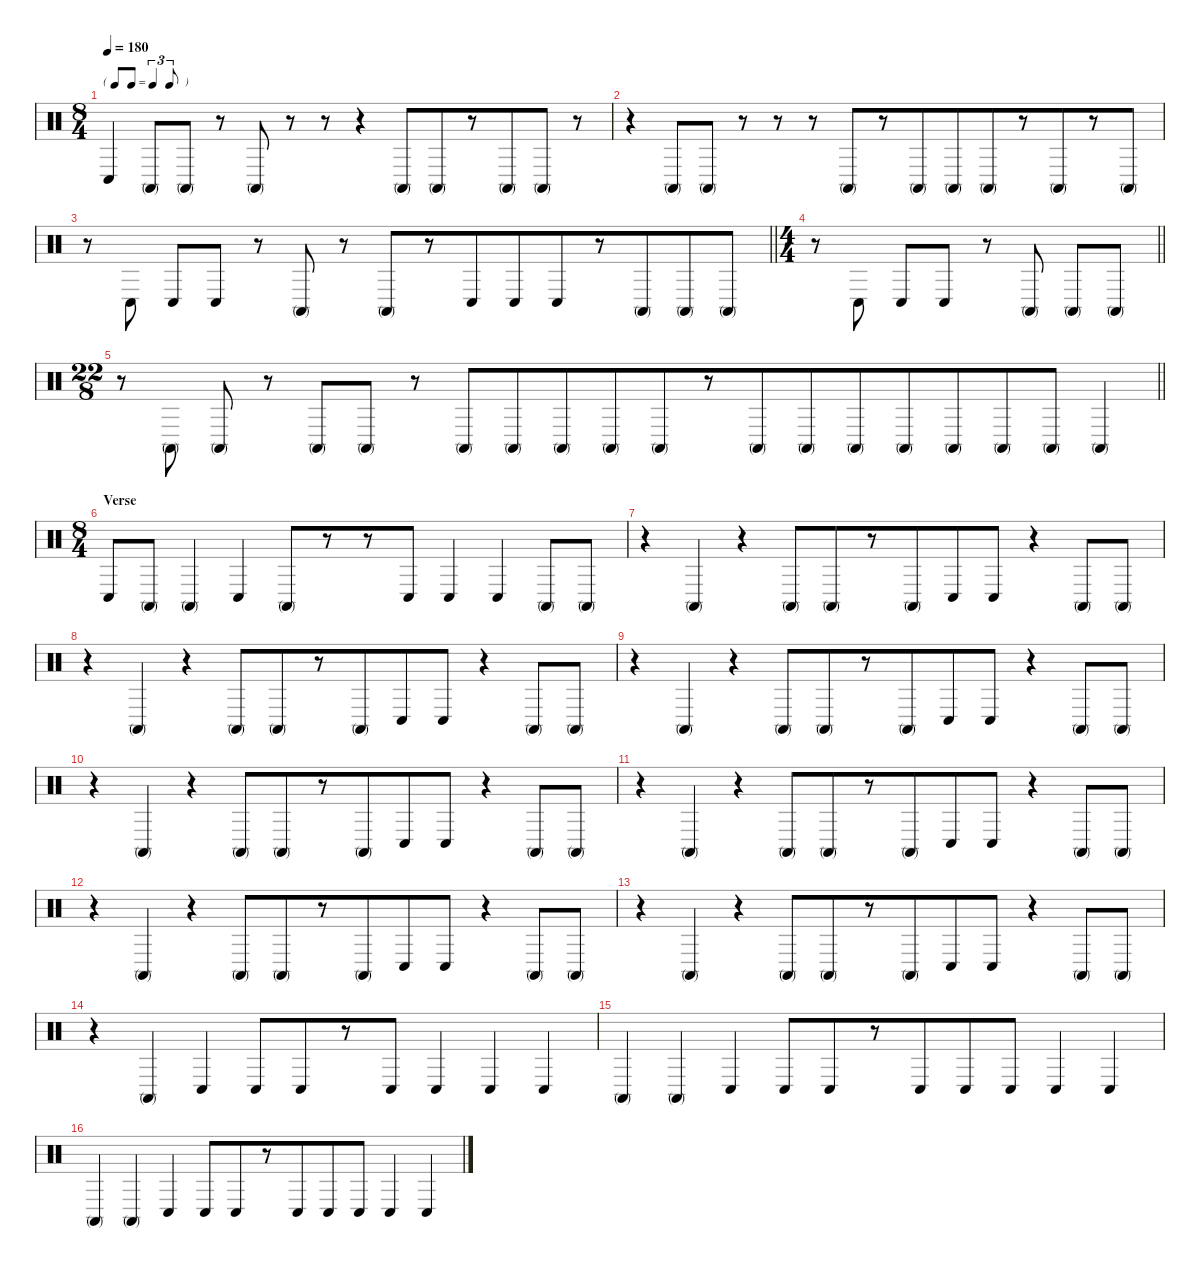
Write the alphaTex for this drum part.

\defaultSystemsLayout 4
\hideDynamics
\bracketExtendMode nobrackets
\singleTrackTrackNamePolicy hidden
\multiTrackTrackNamePolicy hidden
\firstSystemTrackNameMode fullname
\firstSystemTrackNameOrientation horizontal
\otherSystemsTrackNameOrientation horizontal
\track ("Congas" "drm.") {instrument percussion}
\staff {score}
\articulation defaults
\ts (8 4)
\beaming (8 2 2 2 10)
\tf triplet8th
\tempo 180
\clef neutral
\ks c "Conga low (hit)".4{dy f beam Up} "Conga high (mute)".8{beam Up} "Conga high (mute)".8{beam Up}
r.8{beam Up} "Conga high (mute)".8{beam Up} r.8{beam Up} r.8{beam Up} r.4{beam Up} "Conga high (mute)".8{beam Up} "Conga high (mute)".8{beam Up} r.8{beam Up} "Conga high (mute)".8{beam Up} "Conga high (mute)".8{beam Up} r.8{beam Up} |
r.4{beam Down} "Conga high (mute)".8{beam Up} "Conga high (mute)".8{beam Up} r.8{beam Up} r.8{beam Up} r.8{beam Up} "Conga high (mute)".8{beam Up} r.8{beam Up} "Conga high (mute)".8{beam Up} "Conga high (mute)".8{beam Up} "Conga high (mute)".8{beam Up} r.8{beam Up} "Conga high (mute)".8{beam Up} r.8{beam Up} "Conga high (mute)".8{beam Up} |
\barLineRight lightlight
r.8{beam Down} "Conga low (hit)".8{beam Up} "Conga low (hit)".8{beam Up} "Conga low (hit)".8{beam Up} r.8{beam Up} "Conga high (mute)".8{beam Up} r.8{beam Up} "Conga high (mute)".8{beam Up} r.8{beam Up} "Conga low (hit)".8{beam Up} "Conga low (hit)".8{beam Up} "Conga low (hit)".8{beam Up} r.8{beam Up} "Conga high (mute)".8{beam Up} "Conga high (mute)".8{beam Up} "Conga high (mute)".8{beam Up} |
\ts (4 4)
\beaming (8 2 2 2 2)
\barLineRight lightlight
r.8{beam Down} "Conga low (hit)".8{beam Up} "Conga low (hit)".8{beam Up} "Conga low (hit)".8{beam Up} r.8{beam Up} "Conga high (mute)".8{beam Up} "Conga high (mute)".8{beam Up} "Conga high (mute)".8{beam Up} |
\ts (22 8)
\beaming (8 2 2 2 16)
\barLineRight lightlight
r.8{beam Down} "Conga high (mute)".8{beam Up} "Conga high (mute)".8{beam Up} r.8{beam Up} "Conga high (mute)".8{beam Up} "Conga high (mute)".8{beam Up} r.8{beam Up} "Conga high (mute)".8{beam Up} "Conga high (mute)".8{beam Up} "Conga high (mute)".8{beam Up} "Conga high (mute)".8{beam Up} "Conga high (mute)".8{beam Up} r.8{beam Up} "Conga high (mute)".8{beam Up} "Conga high (mute)".8{beam Up} "Conga high (mute)".8{beam Up} "Conga high (mute)".8{beam Up} "Conga high (mute)".8{beam Up} "Conga high (mute)".8{beam Up} "Conga high (mute)".8{beam Up} "Conga high (mute)".4{beam Up} |
\ts (8 4)
\beaming (8 2 2 2 10)
\section ("" "Verse")
"Conga low (hit)".8{beam Up} "Conga high (mute)".8{beam Up} "Conga high (mute)".4{beam Up} "Conga low (hit)".4{beam Up} "Conga high (mute)".8{beam Up} r.8{beam Up} r.8{beam Up} "Conga low (hit)".8{beam Up} "Conga low (hit)".4{beam Up} "Conga low (hit)".4{beam Up} "Conga high (mute)".8{beam Up} "Conga high (mute)".8{beam Up} |
r.4{beam Down} "Conga high (mute)".4{beam Up} r.4{beam Up} "Conga high (mute)".8{beam Up} "Conga high (mute)".8{beam Up} r.8{beam Up} "Conga high (mute)".8{beam Up} "Conga low (hit)".8{beam Up} "Conga low (hit)".8{beam Up} r.4{beam Up} "Conga high (mute)".8{beam Up} "Conga high (mute)".8{beam Up} |
r.4{beam Down} "Conga high (mute)".4{beam Up} r.4{beam Up} "Conga high (mute)".8{beam Up} "Conga high (mute)".8{beam Up} r.8{beam Up} "Conga high (mute)".8{beam Up} "Conga low (hit)".8{beam Up} "Conga low (hit)".8{beam Up} r.4{beam Up} "Conga high (mute)".8{beam Up} "Conga high (mute)".8{beam Up} |
r.4{beam Down} "Conga high (mute)".4{beam Up} r.4{beam Up} "Conga high (mute)".8{beam Up} "Conga high (mute)".8{beam Up} r.8{beam Up} "Conga high (mute)".8{beam Up} "Conga low (hit)".8{beam Up} "Conga low (hit)".8{beam Up} r.4{beam Up} "Conga high (mute)".8{beam Up} "Conga high (mute)".8{beam Up} |
r.4{beam Down} "Conga high (mute)".4{beam Up} r.4{beam Up} "Conga high (mute)".8{beam Up} "Conga high (mute)".8{beam Up} r.8{beam Up} "Conga high (mute)".8{beam Up} "Conga low (hit)".8{beam Up} "Conga low (hit)".8{beam Up} r.4{beam Up} "Conga high (mute)".8{beam Up} "Conga high (mute)".8{beam Up} |
r.4{beam Down} "Conga high (mute)".4{beam Up} r.4{beam Up} "Conga high (mute)".8{beam Up} "Conga high (mute)".8{beam Up} r.8{beam Up} "Conga high (mute)".8{beam Up} "Conga low (hit)".8{beam Up} "Conga low (hit)".8{beam Up} r.4{beam Up} "Conga high (mute)".8{beam Up} "Conga high (mute)".8{beam Up} |
r.4{beam Down} "Conga high (mute)".4{beam Up} r.4{beam Up} "Conga high (mute)".8{beam Up} "Conga high (mute)".8{beam Up} r.8{beam Up} "Conga high (mute)".8{beam Up} "Conga low (hit)".8{beam Up} "Conga low (hit)".8{beam Up} r.4{beam Up} "Conga high (mute)".8{beam Up} "Conga high (mute)".8{beam Up} |
r.4{beam Down} "Conga high (mute)".4{beam Up} r.4{beam Up} "Conga high (mute)".8{beam Up} "Conga high (mute)".8{beam Up} r.8{beam Up} "Conga high (mute)".8{beam Up} "Conga low (hit)".8{beam Up} "Conga low (hit)".8{beam Up} r.4{beam Up} "Conga high (mute)".8{beam Up} "Conga high (mute)".8{beam Up} |
r.4{beam Down} "Conga high (mute)".4{beam Up} "Conga low (hit)".4{beam Up} "Conga low (hit)".8{beam Up} "Conga low (hit)".8{beam Up} r.8{beam Up} "Conga low (hit)".8{beam Up} "Conga low (hit)".4{beam Up} "Conga low (hit)".4{beam Up} "Conga low (hit)".4{beam Up} |
"Conga high (mute)".4{beam Up} "Conga high (mute)".4{beam Up} "Conga low (hit)".4{beam Up} "Conga low (hit)".8{beam Up} "Conga low (hit)".8{beam Up} r.8{beam Up} "Conga low (hit)".8{beam Up} "Conga low (hit)".8{beam Up} "Conga low (hit)".8{beam Up} "Conga low (hit)".4{beam Up} "Conga low (hit)".4{beam Up} |
"Conga high (mute)".4{beam Up} "Conga high (mute)".4{beam Up} "Conga low (hit)".4{beam Up} "Conga low (hit)".8{beam Up} "Conga low (hit)".8{beam Up} r.8{beam Up} "Conga low (hit)".8{beam Up} "Conga low (hit)".8{beam Up} "Conga low (hit)".8{beam Up} "Conga low (hit)".4{beam Up} "Conga low (hit)".4{beam Up}
